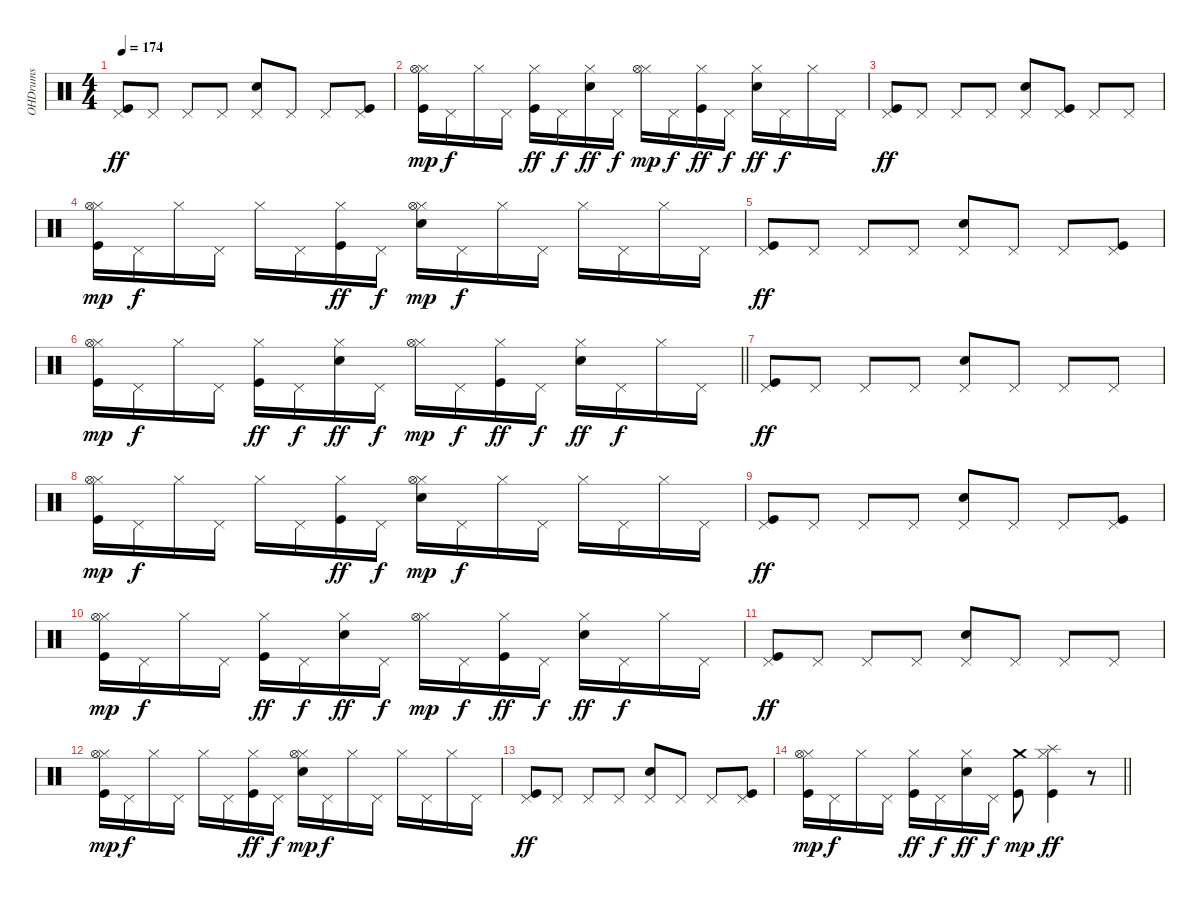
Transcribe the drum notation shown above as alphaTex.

\track ("OHDrums" "OHDrums") {instrument percussion}
\staff {score}
\articulation defaults
\ts (4 4)
\tempo 174
\clef neutral
\ks c
("Kick (hit)" "Pedal Hi-Hat (hit)").8{dy ff} "Pedal Hi-Hat (hit)".8 "Pedal Hi-Hat (hit)".8 "Pedal Hi-Hat (hit)".8 ("Electric Snare (hit)" "Pedal Hi-Hat (hit)").8 "Pedal Hi-Hat (hit)".8 "Pedal Hi-Hat (hit)".8 ("Kick (hit)" "Pedal Hi-Hat (hit)").8 |
("Kick (hit)" "Hi-Hat (closed)" "Hi-Hat (open)").16{dy mp} "Pedal Hi-Hat (hit)".16{dy f} "Hi-Hat (closed)".16 "Pedal Hi-Hat (hit)".16 ("Kick (hit)" "Hi-Hat (closed)").16{dy ff} "Pedal Hi-Hat (hit)".16{dy f} ("Electric Snare (hit)" "Hi-Hat (closed)").16{dy ff} "Pedal Hi-Hat (hit)".16{dy f} ("Hi-Hat (closed)" "Hi-Hat (open)").16{dy mp} "Pedal Hi-Hat (hit)".16{dy f} ("Kick (hit)" "Hi-Hat (closed)").16{dy ff} "Pedal Hi-Hat (hit)".16{dy f} ("Electric Snare (hit)" "Hi-Hat (closed)").16{dy ff} "Pedal Hi-Hat (hit)".16{dy f} "Hi-Hat (closed)".16 "Pedal Hi-Hat (hit)".16 |
("Kick (hit)" "Pedal Hi-Hat (hit)").8{dy ff} "Pedal Hi-Hat (hit)".8 "Pedal Hi-Hat (hit)".8 "Pedal Hi-Hat (hit)".8 ("Electric Snare (hit)" "Pedal Hi-Hat (hit)").8 ("Kick (hit)" "Pedal Hi-Hat (hit)").8 "Pedal Hi-Hat (hit)".8 "Pedal Hi-Hat (hit)".8 |
("Kick (hit)" "Hi-Hat (closed)" "Hi-Hat (open)").16{dy mp} "Pedal Hi-Hat (hit)".16{dy f} "Hi-Hat (closed)".16 "Pedal Hi-Hat (hit)".16 "Hi-Hat (closed)".16 "Pedal Hi-Hat (hit)".16 ("Kick (hit)" "Hi-Hat (closed)").16{dy ff} "Pedal Hi-Hat (hit)".16{dy f} ("Electric Snare (hit)" "Hi-Hat (closed)" "Hi-Hat (open)").16{dy mp} "Pedal Hi-Hat (hit)".16{dy f} "Hi-Hat (closed)".16 "Pedal Hi-Hat (hit)".16 "Hi-Hat (closed)".16 "Pedal Hi-Hat (hit)".16 "Hi-Hat (closed)".16 "Pedal Hi-Hat (hit)".16 |
("Kick (hit)" "Pedal Hi-Hat (hit)").8{dy ff} "Pedal Hi-Hat (hit)".8 "Pedal Hi-Hat (hit)".8 "Pedal Hi-Hat (hit)".8 ("Electric Snare (hit)" "Pedal Hi-Hat (hit)").8 "Pedal Hi-Hat (hit)".8 "Pedal Hi-Hat (hit)".8 ("Kick (hit)" "Pedal Hi-Hat (hit)").8 |
\barLineRight lightlight
("Kick (hit)" "Hi-Hat (closed)" "Hi-Hat (open)").16{dy mp} "Pedal Hi-Hat (hit)".16{dy f} "Hi-Hat (closed)".16 "Pedal Hi-Hat (hit)".16 ("Kick (hit)" "Hi-Hat (closed)").16{dy ff} "Pedal Hi-Hat (hit)".16{dy f} ("Electric Snare (hit)" "Hi-Hat (closed)").16{dy ff} "Pedal Hi-Hat (hit)".16{dy f} ("Hi-Hat (closed)" "Hi-Hat (open)").16{dy mp} "Pedal Hi-Hat (hit)".16{dy f} ("Kick (hit)" "Hi-Hat (closed)").16{dy ff} "Pedal Hi-Hat (hit)".16{dy f} ("Electric Snare (hit)" "Hi-Hat (closed)").16{dy ff} "Pedal Hi-Hat (hit)".16{dy f} "Hi-Hat (closed)".16 "Pedal Hi-Hat (hit)".16 |
("Kick (hit)" "Pedal Hi-Hat (hit)").8{dy ff} "Pedal Hi-Hat (hit)".8 "Pedal Hi-Hat (hit)".8 "Pedal Hi-Hat (hit)".8 ("Electric Snare (hit)" "Pedal Hi-Hat (hit)").8 "Pedal Hi-Hat (hit)".8 "Pedal Hi-Hat (hit)".8 "Pedal Hi-Hat (hit)".8 |
("Kick (hit)" "Hi-Hat (closed)" "Hi-Hat (open)").16{dy mp} "Pedal Hi-Hat (hit)".16{dy f} "Hi-Hat (closed)".16 "Pedal Hi-Hat (hit)".16 "Hi-Hat (closed)".16 "Pedal Hi-Hat (hit)".16 ("Kick (hit)" "Hi-Hat (closed)").16{dy ff} "Pedal Hi-Hat (hit)".16{dy f} ("Electric Snare (hit)" "Hi-Hat (closed)" "Hi-Hat (open)").16{dy mp} "Pedal Hi-Hat (hit)".16{dy f} "Hi-Hat (closed)".16 "Pedal Hi-Hat (hit)".16 "Hi-Hat (closed)".16 "Pedal Hi-Hat (hit)".16 "Hi-Hat (closed)".16 "Pedal Hi-Hat (hit)".16 |
("Kick (hit)" "Pedal Hi-Hat (hit)").8{dy ff} "Pedal Hi-Hat (hit)".8 "Pedal Hi-Hat (hit)".8 "Pedal Hi-Hat (hit)".8 ("Electric Snare (hit)" "Pedal Hi-Hat (hit)").8 "Pedal Hi-Hat (hit)".8 "Pedal Hi-Hat (hit)".8 ("Kick (hit)" "Pedal Hi-Hat (hit)").8 |
("Kick (hit)" "Hi-Hat (closed)" "Hi-Hat (open)").16{dy mp} "Pedal Hi-Hat (hit)".16{dy f} "Hi-Hat (closed)".16 "Pedal Hi-Hat (hit)".16 ("Kick (hit)" "Hi-Hat (closed)").16{dy ff} "Pedal Hi-Hat (hit)".16{dy f} ("Electric Snare (hit)" "Hi-Hat (closed)").16{dy ff} "Pedal Hi-Hat (hit)".16{dy f} ("Hi-Hat (closed)" "Hi-Hat (open)").16{dy mp} "Pedal Hi-Hat (hit)".16{dy f} ("Kick (hit)" "Hi-Hat (closed)").16{dy ff} "Pedal Hi-Hat (hit)".16{dy f} ("Electric Snare (hit)" "Hi-Hat (closed)").16{dy ff} "Pedal Hi-Hat (hit)".16{dy f} "Hi-Hat (closed)".16 "Pedal Hi-Hat (hit)".16 |
("Kick (hit)" "Pedal Hi-Hat (hit)").8{dy ff} "Pedal Hi-Hat (hit)".8 "Pedal Hi-Hat (hit)".8 "Pedal Hi-Hat (hit)".8 ("Electric Snare (hit)" "Pedal Hi-Hat (hit)").8 "Pedal Hi-Hat (hit)".8 "Pedal Hi-Hat (hit)".8 "Pedal Hi-Hat (hit)".8 |
("Kick (hit)" "Hi-Hat (closed)" "Hi-Hat (open)").16{dy mp} "Pedal Hi-Hat (hit)".16{dy f} "Hi-Hat (closed)".16 "Pedal Hi-Hat (hit)".16 "Hi-Hat (closed)".16 "Pedal Hi-Hat (hit)".16 ("Kick (hit)" "Hi-Hat (closed)").16{dy ff} "Pedal Hi-Hat (hit)".16{dy f} ("Electric Snare (hit)" "Hi-Hat (closed)" "Hi-Hat (open)").16{dy mp} "Pedal Hi-Hat (hit)".16{dy f} "Hi-Hat (closed)".16 "Pedal Hi-Hat (hit)".16 "Hi-Hat (closed)".16 "Pedal Hi-Hat (hit)".16 "Hi-Hat (closed)".16 "Pedal Hi-Hat (hit)".16 |
("Kick (hit)" "Pedal Hi-Hat (hit)").8{dy ff} "Pedal Hi-Hat (hit)".8 "Pedal Hi-Hat (hit)".8 "Pedal Hi-Hat (hit)".8 ("Electric Snare (hit)" "Pedal Hi-Hat (hit)").8 "Pedal Hi-Hat (hit)".8 "Pedal Hi-Hat (hit)".8 ("Kick (hit)" "Pedal Hi-Hat (hit)").8 |
\barLineRight lightlight
("Kick (hit)" "Hi-Hat (closed)" "Hi-Hat (open)").16{dy mp} "Pedal Hi-Hat (hit)".16{dy f} "Hi-Hat (closed)".16 "Pedal Hi-Hat (hit)".16 ("Kick (hit)" "Hi-Hat (closed)").16{dy ff} "Pedal Hi-Hat (hit)".16{dy f} ("Electric Snare (hit)" "Hi-Hat (closed)").16{dy ff} "Pedal Hi-Hat (hit)".16{dy f} ("Kick (hit)" "Crash medium (hit)").8{dy mp} ("Kick (hit)" "Hi-Hat (closed)" "Splash (hit)").4{dy ff} r.8
